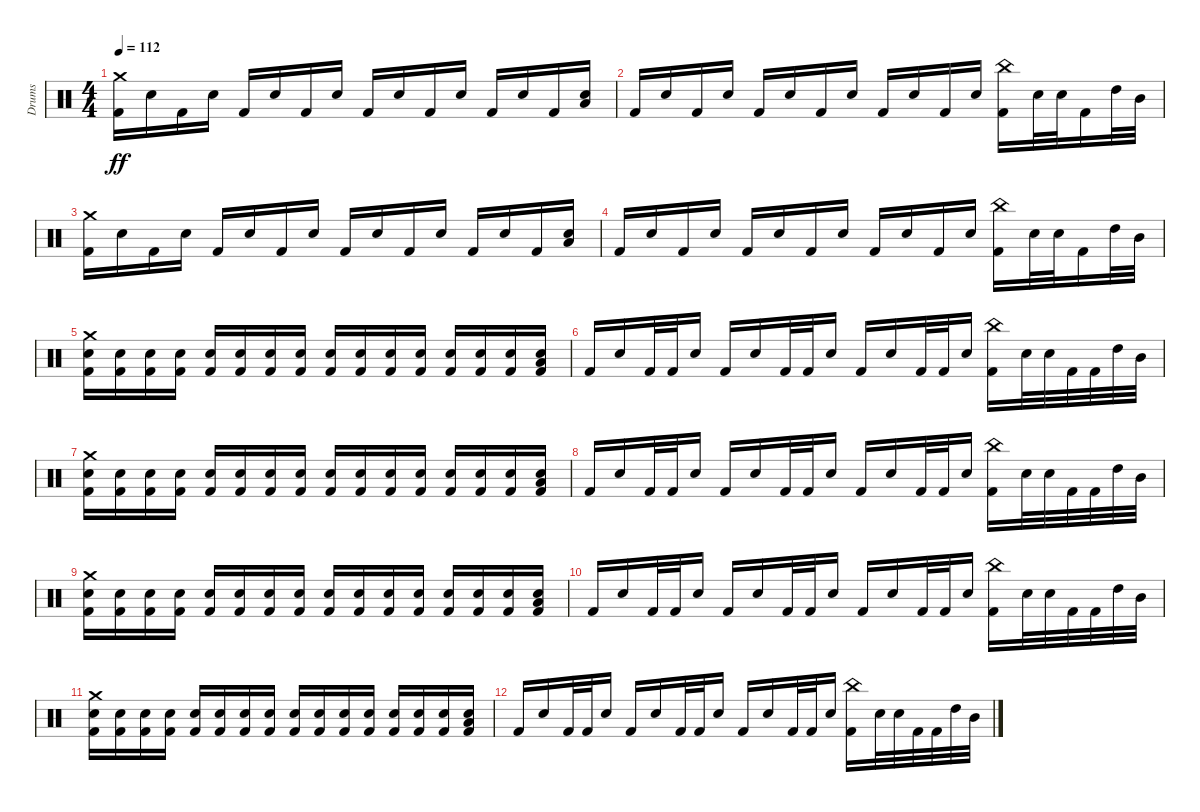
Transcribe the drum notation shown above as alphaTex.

\track ("Drums" "Drums") {instrument percussion}
\staff {score}
\articulation defaults
\ts (4 4)
\tempo 112
\clef neutral
\ks c
("Crash medium (hit)" "Kick (hit) 2").16{dy ff} "Snare (hit) 2".16 "Kick (hit) 2".16 "Snare (hit) 2".16 "Kick (hit) 2".16 "Snare (hit) 2".16 "Kick (hit) 2".16 "Snare (hit) 2".16 "Kick (hit) 2".16 "Snare (hit) 2".16 "Kick (hit) 2".16 "Snare (hit) 2".16 "Kick (hit) 2".16 "Snare (hit) 2".16 "Kick (hit) 2".16 ("Snare (hit) 2" "Low Tom (hit)").16 |
"Kick (hit) 2".16 "Snare (hit) 2".16 "Kick (hit) 2".16 "Snare (hit) 2".16 "Kick (hit) 2".16 "Snare (hit) 2".16 "Kick (hit) 2".16 "Snare (hit) 2".16 "Kick (hit) 2".16 "Snare (hit) 2".16 "Kick (hit) 2".16 "Snare (hit) 2".16 ("China (hit)" "Kick (hit) 2").16 "Snare (hit) 2".32 "Snare (hit) 2".32 "Kick (hit) 2".16 "High Tom (hit)".32 "Mid Tom (hit)".32 |
("Crash medium (hit)" "Kick (hit) 2").16 "Snare (hit) 2".16 "Kick (hit) 2".16 "Snare (hit) 2".16 "Kick (hit) 2".16 "Snare (hit) 2".16 "Kick (hit) 2".16 "Snare (hit) 2".16 "Kick (hit) 2".16 "Snare (hit) 2".16 "Kick (hit) 2".16 "Snare (hit) 2".16 "Kick (hit) 2".16 "Snare (hit) 2".16 "Kick (hit) 2".16 ("Snare (hit) 2" "Low Tom (hit)").16 |
"Kick (hit) 2".16 "Snare (hit) 2".16 "Kick (hit) 2".16 "Snare (hit) 2".16 "Kick (hit) 2".16 "Snare (hit) 2".16 "Kick (hit) 2".16 "Snare (hit) 2".16 "Kick (hit) 2".16 "Snare (hit) 2".16 "Kick (hit) 2".16 "Snare (hit) 2".16 ("China (hit)" "Kick (hit) 2").16 "Snare (hit) 2".32 "Snare (hit) 2".32 "Kick (hit) 2".16 "High Tom (hit)".32 "Mid Tom (hit)".32 |
("Crash medium (hit)" "Kick (hit) 2" "Snare (hit) 2").16 ("Kick (hit) 2" "Snare (hit) 2").16 ("Kick (hit) 2" "Snare (hit) 2").16 ("Kick (hit) 2" "Snare (hit) 2").16 ("Kick (hit) 2" "Snare (hit) 2").16 ("Kick (hit) 2" "Snare (hit) 2").16 ("Kick (hit) 2" "Snare (hit) 2").16 ("Kick (hit) 2" "Snare (hit) 2").16 ("Kick (hit) 2" "Snare (hit) 2").16 ("Kick (hit) 2" "Snare (hit) 2").16 ("Kick (hit) 2" "Snare (hit) 2").16 ("Kick (hit) 2" "Snare (hit) 2").16 ("Kick (hit) 2" "Snare (hit) 2").16 ("Kick (hit) 2" "Snare (hit) 2").16 ("Kick (hit) 2" "Snare (hit) 2").16 ("Kick (hit) 2" "Snare (hit) 2" "Low Tom (hit)").16 |
"Kick (hit) 2".16 "Snare (hit) 2".16 "Kick (hit) 2".32 "Kick (hit) 2".32 "Snare (hit) 2".16 "Kick (hit) 2".16 "Snare (hit) 2".16 "Kick (hit) 2".32 "Kick (hit) 2".32 "Snare (hit) 2".16 "Kick (hit) 2".16 "Snare (hit) 2".16 "Kick (hit) 2".32 "Kick (hit) 2".32 "Snare (hit) 2".16 ("China (hit)" "Kick (hit) 2").16 "Snare (hit) 2".32 "Snare (hit) 2".32 "Kick (hit) 2".32 "Kick (hit) 2".32 "High Tom (hit)".32 "Mid Tom (hit)".32 |
("Crash medium (hit)" "Kick (hit) 2" "Snare (hit) 2").16 ("Kick (hit) 2" "Snare (hit) 2").16 ("Kick (hit) 2" "Snare (hit) 2").16 ("Kick (hit) 2" "Snare (hit) 2").16 ("Kick (hit) 2" "Snare (hit) 2").16 ("Kick (hit) 2" "Snare (hit) 2").16 ("Kick (hit) 2" "Snare (hit) 2").16 ("Kick (hit) 2" "Snare (hit) 2").16 ("Kick (hit) 2" "Snare (hit) 2").16 ("Kick (hit) 2" "Snare (hit) 2").16 ("Kick (hit) 2" "Snare (hit) 2").16 ("Kick (hit) 2" "Snare (hit) 2").16 ("Kick (hit) 2" "Snare (hit) 2").16 ("Kick (hit) 2" "Snare (hit) 2").16 ("Kick (hit) 2" "Snare (hit) 2").16 ("Kick (hit) 2" "Snare (hit) 2" "Low Tom (hit)").16 |
"Kick (hit) 2".16 "Snare (hit) 2".16 "Kick (hit) 2".32 "Kick (hit) 2".32 "Snare (hit) 2".16 "Kick (hit) 2".16 "Snare (hit) 2".16 "Kick (hit) 2".32 "Kick (hit) 2".32 "Snare (hit) 2".16 "Kick (hit) 2".16 "Snare (hit) 2".16 "Kick (hit) 2".32 "Kick (hit) 2".32 "Snare (hit) 2".16 ("China (hit)" "Kick (hit) 2").16 "Snare (hit) 2".32 "Snare (hit) 2".32 "Kick (hit) 2".32 "Kick (hit) 2".32 "High Tom (hit)".32 "Mid Tom (hit)".32 |
("Crash medium (hit)" "Kick (hit) 2" "Snare (hit) 2").16 ("Kick (hit) 2" "Snare (hit) 2").16 ("Kick (hit) 2" "Snare (hit) 2").16 ("Kick (hit) 2" "Snare (hit) 2").16 ("Kick (hit) 2" "Snare (hit) 2").16 ("Kick (hit) 2" "Snare (hit) 2").16 ("Kick (hit) 2" "Snare (hit) 2").16 ("Kick (hit) 2" "Snare (hit) 2").16 ("Kick (hit) 2" "Snare (hit) 2").16 ("Kick (hit) 2" "Snare (hit) 2").16 ("Kick (hit) 2" "Snare (hit) 2").16 ("Kick (hit) 2" "Snare (hit) 2").16 ("Kick (hit) 2" "Snare (hit) 2").16 ("Kick (hit) 2" "Snare (hit) 2").16 ("Kick (hit) 2" "Snare (hit) 2").16 ("Kick (hit) 2" "Snare (hit) 2" "Low Tom (hit)").16 |
"Kick (hit) 2".16 "Snare (hit) 2".16 "Kick (hit) 2".32 "Kick (hit) 2".32 "Snare (hit) 2".16 "Kick (hit) 2".16 "Snare (hit) 2".16 "Kick (hit) 2".32 "Kick (hit) 2".32 "Snare (hit) 2".16 "Kick (hit) 2".16 "Snare (hit) 2".16 "Kick (hit) 2".32 "Kick (hit) 2".32 "Snare (hit) 2".16 ("China (hit)" "Kick (hit) 2").16 "Snare (hit) 2".32 "Snare (hit) 2".32 "Kick (hit) 2".32 "Kick (hit) 2".32 "High Tom (hit)".32 "Mid Tom (hit)".32 |
("Crash medium (hit)" "Kick (hit) 2" "Snare (hit) 2").16 ("Kick (hit) 2" "Snare (hit) 2").16 ("Kick (hit) 2" "Snare (hit) 2").16 ("Kick (hit) 2" "Snare (hit) 2").16 ("Kick (hit) 2" "Snare (hit) 2").16 ("Kick (hit) 2" "Snare (hit) 2").16 ("Kick (hit) 2" "Snare (hit) 2").16 ("Kick (hit) 2" "Snare (hit) 2").16 ("Kick (hit) 2" "Snare (hit) 2").16 ("Kick (hit) 2" "Snare (hit) 2").16 ("Kick (hit) 2" "Snare (hit) 2").16 ("Kick (hit) 2" "Snare (hit) 2").16 ("Kick (hit) 2" "Snare (hit) 2").16 ("Kick (hit) 2" "Snare (hit) 2").16 ("Kick (hit) 2" "Snare (hit) 2").16 ("Kick (hit) 2" "Snare (hit) 2" "Low Tom (hit)").16 |
"Kick (hit) 2".16 "Snare (hit) 2".16 "Kick (hit) 2".32 "Kick (hit) 2".32 "Snare (hit) 2".16 "Kick (hit) 2".16 "Snare (hit) 2".16 "Kick (hit) 2".32 "Kick (hit) 2".32 "Snare (hit) 2".16 "Kick (hit) 2".16 "Snare (hit) 2".16 "Kick (hit) 2".32 "Kick (hit) 2".32 "Snare (hit) 2".16 ("China (hit)" "Kick (hit) 2").16 "Snare (hit) 2".32 "Snare (hit) 2".32 "Kick (hit) 2".32 "Kick (hit) 2".32 "High Tom (hit)".32 "Mid Tom (hit)".32
